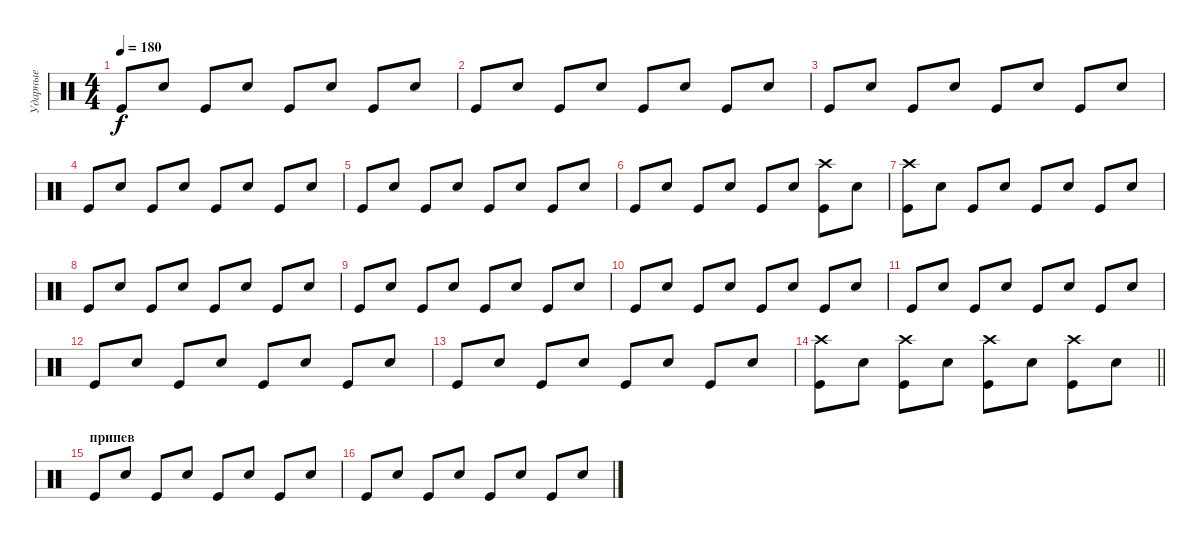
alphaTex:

\track ("Ударные" "Ударные") {instrument percussion}
\staff {score}
\articulation defaults
\ts (4 4)
\tempo 180
\clef neutral
\ks c "Kick (hit)".8{dy f} "Snare (hit) 2".8 "Kick (hit)".8 "Snare (hit) 2".8 "Kick (hit)".8 "Snare (hit) 2".8 "Kick (hit)".8 "Snare (hit) 2".8
|
"Kick (hit)".8 "Snare (hit) 2".8 "Kick (hit)".8 "Snare (hit) 2".8 "Kick (hit)".8 "Snare (hit) 2".8 "Kick (hit)".8 "Snare (hit) 2".8 |
"Kick (hit)".8 "Snare (hit) 2".8 "Kick (hit)".8 "Snare (hit) 2".8 "Kick (hit)".8 "Snare (hit) 2".8 "Kick (hit)".8 "Snare (hit) 2".8 |
"Kick (hit)".8 "Snare (hit) 2".8 "Kick (hit)".8 "Snare (hit) 2".8 "Kick (hit)".8 "Snare (hit) 2".8 "Kick (hit)".8 "Snare (hit) 2".8 |
"Kick (hit)".8 "Snare (hit) 2".8 "Kick (hit)".8 "Snare (hit) 2".8 "Kick (hit)".8 "Snare (hit) 2".8 "Kick (hit)".8 "Snare (hit) 2".8 |
"Kick (hit)".8 "Snare (hit) 2".8 "Kick (hit)".8 "Snare (hit) 2".8 "Kick (hit)".8 "Snare (hit) 2".8 ("Crash high (hit)" "Kick (hit)").8 "Snare (hit) 2".8 |
("Crash high (hit)" "Kick (hit)").8 "Snare (hit) 2".8 "Kick (hit)".8 "Snare (hit) 2".8 "Kick (hit)".8 "Snare (hit) 2".8 "Kick (hit)".8 "Snare (hit) 2".8 |
"Kick (hit)".8 "Snare (hit) 2".8 "Kick (hit)".8 "Snare (hit) 2".8 "Kick (hit)".8 "Snare (hit) 2".8 "Kick (hit)".8 "Snare (hit) 2".8 |
"Kick (hit)".8 "Snare (hit) 2".8 "Kick (hit)".8 "Snare (hit) 2".8 "Kick (hit)".8 "Snare (hit) 2".8 "Kick (hit)".8 "Snare (hit) 2".8 |
"Kick (hit)".8 "Snare (hit) 2".8 "Kick (hit)".8 "Snare (hit) 2".8 "Kick (hit)".8 "Snare (hit) 2".8 "Kick (hit)".8 "Snare (hit) 2".8 |
"Kick (hit)".8 "Snare (hit) 2".8 "Kick (hit)".8 "Snare (hit) 2".8 "Kick (hit)".8 "Snare (hit) 2".8 "Kick (hit)".8 "Snare (hit) 2".8 |
"Kick (hit)".8 "Snare (hit) 2".8 "Kick (hit)".8 "Snare (hit) 2".8 "Kick (hit)".8 "Snare (hit) 2".8 "Kick (hit)".8 "Snare (hit) 2".8 |
"Kick (hit)".8 "Snare (hit) 2".8 "Kick (hit)".8 "Snare (hit) 2".8 "Kick (hit)".8 "Snare (hit) 2".8 "Kick (hit)".8 "Snare (hit) 2".8 |
\barLineRight lightlight
("Crash high (hit)" "Kick (hit)").8 "Snare (hit) 2".8 ("Crash high (hit)" "Kick (hit)").8 "Snare (hit) 2".8 ("Crash high (hit)" "Kick (hit)").8 "Snare (hit) 2".8 ("Crash high (hit)" "Kick (hit)").8 "Snare (hit) 2".8 |
\section ("" "припев")
"Kick (hit)".8 "Snare (hit) 2".8 "Kick (hit)".8 "Snare (hit) 2".8 "Kick (hit)".8 "Snare (hit) 2".8 "Kick (hit)".8 "Snare (hit) 2".8 |
"Kick (hit)".8 "Snare (hit) 2".8 "Kick (hit)".8 "Snare (hit) 2".8 "Kick (hit)".8 "Snare (hit) 2".8 "Kick (hit)".8 "Snare (hit) 2".8
